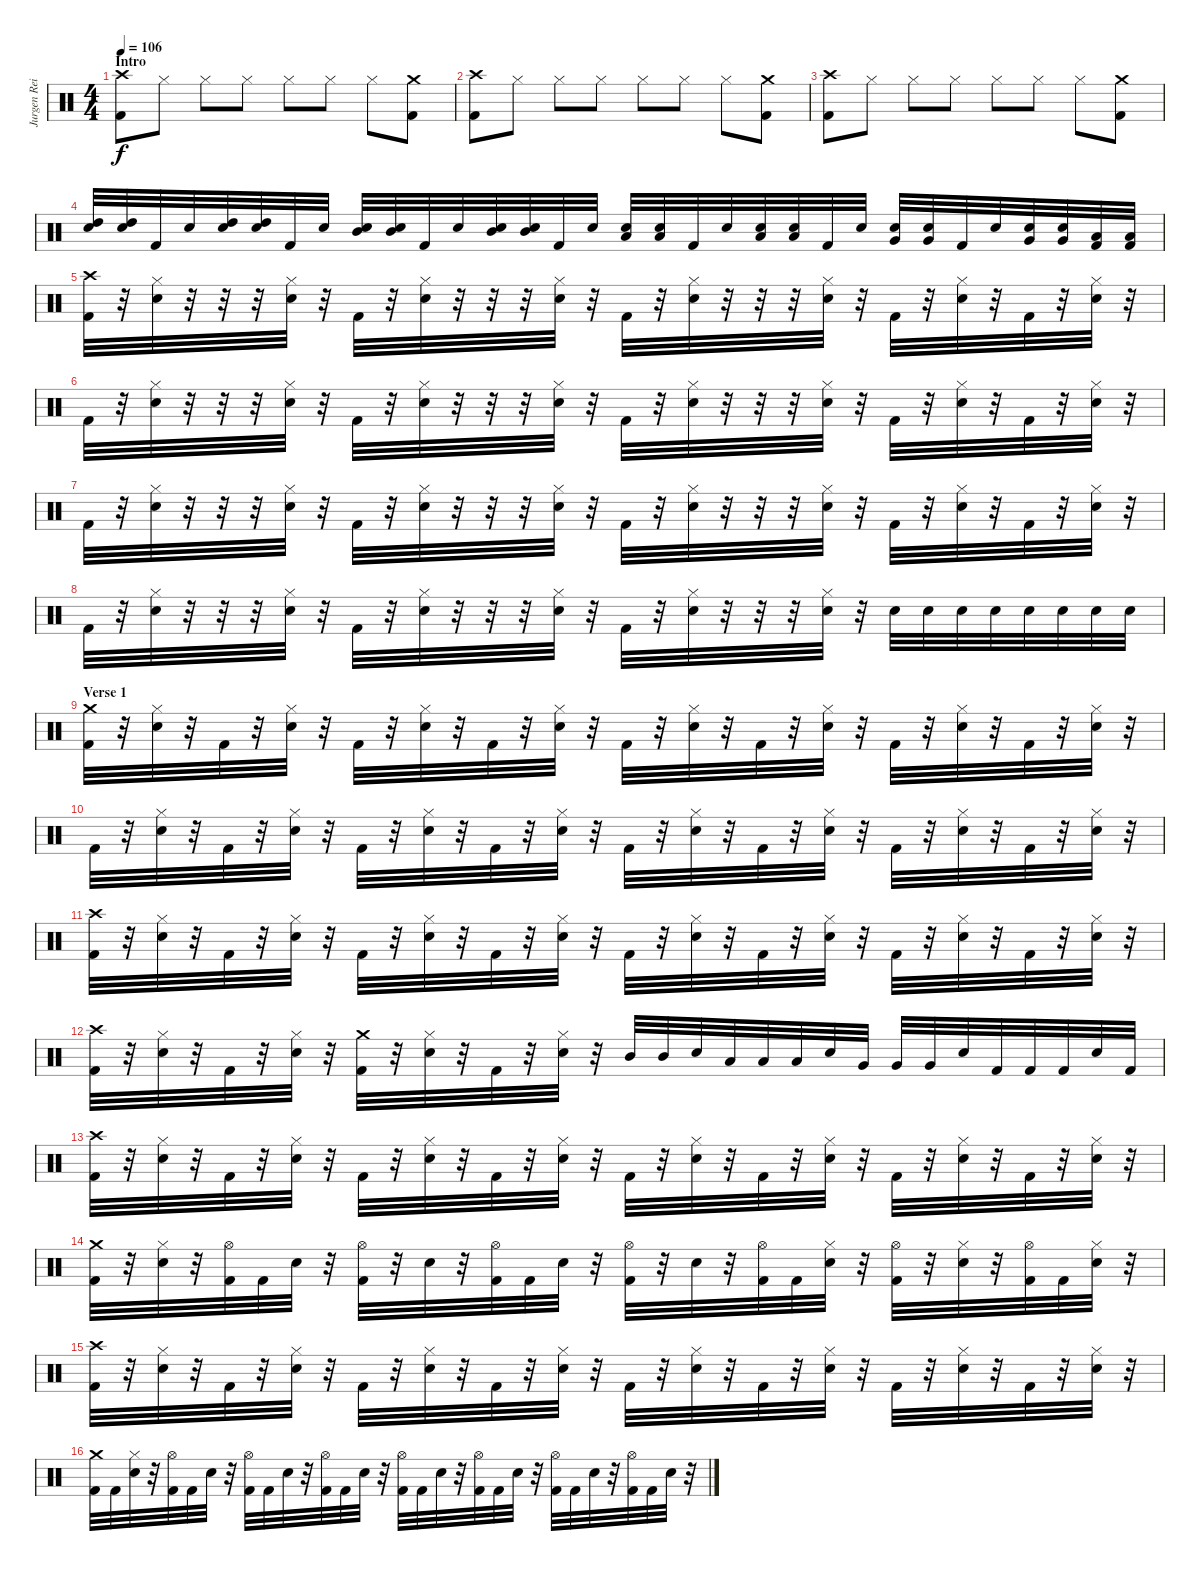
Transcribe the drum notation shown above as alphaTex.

\track ("Jurgen Reil" "Jurgen Rei") {instrument percussion}
\staff {score}
\articulation defaults
\ts (4 4)
\section ("" "Intro")
\tempo 106
\clef neutral
\ks c
("Crash high (hit)" "Kick (hit) 2").8{dy f} "Hi-Hat (closed)".8 "Hi-Hat (closed)".8 "Hi-Hat (closed)".8 "Hi-Hat (closed)".8 "Hi-Hat (closed)".8 "Hi-Hat (closed)".8 ("Crash medium (hit)" "Kick (hit) 2").8 |
("Crash high (hit)" "Kick (hit) 2").8 "Hi-Hat (closed)".8 "Hi-Hat (closed)".8 "Hi-Hat (closed)".8 "Hi-Hat (closed)".8 "Hi-Hat (closed)".8 "Hi-Hat (closed)".8 ("Crash medium (hit)" "Kick (hit) 2").8 |
("Crash high (hit)" "Kick (hit) 2").8 "Hi-Hat (closed)".8 "Hi-Hat (closed)".8 "Hi-Hat (closed)".8 "Hi-Hat (closed)".8 "Hi-Hat (closed)".8 "Hi-Hat (closed)".8 ("Crash medium (hit)" "Kick (hit) 2").8 |
("High Tom (hit)" "Snare (hit) 2").32 ("High Tom (hit)" "Snare (hit) 2").32 "Kick (hit) 2".32 "Snare (hit) 2".32 ("High Tom (hit)" "Snare (hit) 2").32 ("High Tom (hit)" "Snare (hit) 2").32 "Kick (hit) 2".32 "Snare (hit) 2".32 ("Mid Tom (hit)" "Snare (hit) 2").32 ("Mid Tom (hit)" "Snare (hit) 2").32 "Kick (hit) 2".32 "Snare (hit) 2".32 ("Mid Tom (hit)" "Snare (hit) 2").32 ("Mid Tom (hit)" "Snare (hit) 2").32 "Kick (hit) 2".32 "Snare (hit) 2".32 ("Low Tom (hit)" "Snare (hit) 2").32 ("Low Tom (hit)" "Snare (hit) 2").32 "Kick (hit) 2".32 "Snare (hit) 2".32 ("Low Tom (hit)" "Snare (hit) 2").32 ("Low Tom (hit)" "Snare (hit) 2").32 "Kick (hit) 2".32 "Snare (hit) 2".32 ("Very Low Tom (hit)" "Snare (hit) 2").32 ("Very Low Tom (hit)" "Snare (hit) 2").32 "Kick (hit) 2".32 "Snare (hit) 2".32 ("Very Low Tom (hit)" "Snare (hit) 2").32 ("Very Low Tom (hit)" "Snare (hit) 2").32 ("Low Floor Tom (hit)" "Kick (hit) 2").32 ("Low Floor Tom (hit)" "Kick (hit) 2").32 |
("Crash high (hit)" "Kick (hit) 2").32 r.32 ("Hi-Hat (closed)" "Snare (hit) 2").32 r.32 r.32 r.32 ("Hi-Hat (closed)" "Snare (hit) 2").32 r.32 "Kick (hit) 2".32 r.32 ("Hi-Hat (closed)" "Snare (hit) 2").32 r.32 r.32 r.32 ("Hi-Hat (closed)" "Snare (hit) 2").32 r.32 "Kick (hit) 2".32 r.32 ("Hi-Hat (closed)" "Snare (hit) 2").32 r.32 r.32 r.32 ("Hi-Hat (closed)" "Snare (hit) 2").32 r.32 "Kick (hit) 2".32 r.32 ("Hi-Hat (closed)" "Snare (hit) 2").32 r.32 "Kick (hit) 2".32 r.32 ("Hi-Hat (closed)" "Snare (hit) 2").32 r.32 |
"Kick (hit) 2".32 r.32 ("Hi-Hat (closed)" "Snare (hit) 2").32 r.32 r.32 r.32 ("Hi-Hat (closed)" "Snare (hit) 2").32 r.32 "Kick (hit) 2".32 r.32 ("Hi-Hat (closed)" "Snare (hit) 2").32 r.32 r.32 r.32 ("Hi-Hat (closed)" "Snare (hit) 2").32 r.32 "Kick (hit) 2".32 r.32 ("Hi-Hat (closed)" "Snare (hit) 2").32 r.32 r.32 r.32 ("Hi-Hat (closed)" "Snare (hit) 2").32 r.32 "Kick (hit) 2".32 r.32 ("Hi-Hat (closed)" "Snare (hit) 2").32 r.32 "Kick (hit) 2".32 r.32 ("Hi-Hat (closed)" "Snare (hit) 2").32 r.32 |
"Kick (hit) 2".32 r.32 ("Hi-Hat (closed)" "Snare (hit) 2").32 r.32 r.32 r.32 ("Hi-Hat (closed)" "Snare (hit) 2").32 r.32 "Kick (hit) 2".32 r.32 ("Hi-Hat (closed)" "Snare (hit) 2").32 r.32 r.32 r.32 ("Hi-Hat (closed)" "Snare (hit) 2").32 r.32 "Kick (hit) 2".32 r.32 ("Hi-Hat (closed)" "Snare (hit) 2").32 r.32 r.32 r.32 ("Hi-Hat (closed)" "Snare (hit) 2").32 r.32 "Kick (hit) 2".32 r.32 ("Hi-Hat (closed)" "Snare (hit) 2").32 r.32 "Kick (hit) 2".32 r.32 ("Hi-Hat (closed)" "Snare (hit) 2").32 r.32 |
"Kick (hit) 2".32 r.32 ("Hi-Hat (closed)" "Snare (hit) 2").32 r.32 r.32 r.32 ("Hi-Hat (closed)" "Snare (hit) 2").32 r.32 "Kick (hit) 2".32 r.32 ("Hi-Hat (closed)" "Snare (hit) 2").32 r.32 r.32 r.32 ("Hi-Hat (closed)" "Snare (hit) 2").32 r.32 "Kick (hit) 2".32 r.32 ("Hi-Hat (closed)" "Snare (hit) 2").32 r.32 r.32 r.32 ("Hi-Hat (closed)" "Snare (hit) 2").32 r.32 "Snare (hit) 2".32 "Snare (hit) 2".32 "Snare (hit) 2".32 "Snare (hit) 2".32 "Snare (hit) 2".32 "Snare (hit) 2".32 "Snare (hit) 2".32 "Snare (hit) 2".32 |
\section ("" "Verse 1")
("Crash medium (hit)" "Kick (hit) 2").32 r.32 ("Hi-Hat (closed)" "Snare (hit) 2").32 r.32 "Kick (hit) 2".32 r.32 ("Hi-Hat (closed)" "Snare (hit) 2").32 r.32 "Kick (hit) 2".32 r.32 ("Hi-Hat (closed)" "Snare (hit) 2").32 r.32 "Kick (hit) 2".32 r.32 ("Hi-Hat (closed)" "Snare (hit) 2").32 r.32 "Kick (hit) 2".32 r.32 ("Hi-Hat (closed)" "Snare (hit) 2").32 r.32 "Kick (hit) 2".32 r.32 ("Hi-Hat (closed)" "Snare (hit) 2").32 r.32 "Kick (hit) 2".32 r.32 ("Hi-Hat (closed)" "Snare (hit) 2").32 r.32 "Kick (hit) 2".32 r.32 ("Hi-Hat (closed)" "Snare (hit) 2").32 r.32 |
"Kick (hit) 2".32 r.32 ("Hi-Hat (closed)" "Snare (hit) 2").32 r.32 "Kick (hit) 2".32 r.32 ("Hi-Hat (closed)" "Snare (hit) 2").32 r.32 "Kick (hit) 2".32 r.32 ("Hi-Hat (closed)" "Snare (hit) 2").32 r.32 "Kick (hit) 2".32 r.32 ("Hi-Hat (closed)" "Snare (hit) 2").32 r.32 "Kick (hit) 2".32 r.32 ("Hi-Hat (closed)" "Snare (hit) 2").32 r.32 "Kick (hit) 2".32 r.32 ("Hi-Hat (closed)" "Snare (hit) 2").32 r.32 "Kick (hit) 2".32 r.32 ("Hi-Hat (closed)" "Snare (hit) 2").32 r.32 "Kick (hit) 2".32 r.32 ("Hi-Hat (closed)" "Snare (hit) 2").32 r.32 |
("Crash high (hit)" "Kick (hit) 2").32 r.32 ("Hi-Hat (closed)" "Snare (hit) 2").32 r.32 "Kick (hit) 2".32 r.32 ("Hi-Hat (closed)" "Snare (hit) 2").32 r.32 "Kick (hit) 2".32 r.32 ("Hi-Hat (closed)" "Snare (hit) 2").32 r.32 "Kick (hit) 2".32 r.32 ("Hi-Hat (closed)" "Snare (hit) 2").32 r.32 "Kick (hit) 2".32 r.32 ("Hi-Hat (closed)" "Snare (hit) 2").32 r.32 "Kick (hit) 2".32 r.32 ("Hi-Hat (closed)" "Snare (hit) 2").32 r.32 "Kick (hit) 2".32 r.32 ("Hi-Hat (closed)" "Snare (hit) 2").32 r.32 "Kick (hit) 2".32 r.32 ("Hi-Hat (closed)" "Snare (hit) 2").32 r.32 |
("Crash high (hit)" "Kick (hit) 2").32 r.32 ("Hi-Hat (closed)" "Snare (hit) 2").32 r.32 "Kick (hit) 2".32 r.32 ("Hi-Hat (closed)" "Snare (hit) 2").32 r.32 ("Crash medium (hit)" "Kick (hit) 2").32 r.32 ("Hi-Hat (closed)" "Snare (hit) 2").32 r.32 "Kick (hit) 2".32 r.32 ("Hi-Hat (closed)" "Snare (hit) 2").32 r.32 "Mid Tom (hit)".32 "Mid Tom (hit)".32 "Snare (hit) 2".32 "Low Tom (hit)".32 "Low Tom (hit)".32 "Low Tom (hit)".32 "Snare (hit) 2".32 "Very Low Tom (hit)".32 "Very Low Tom (hit)".32 "Very Low Tom (hit)".32 "Snare (hit) 2".32 "Kick (hit) 2".32 "Kick (hit) 2".32 "Kick (hit) 2".32 "Snare (hit) 2".32 "Kick (hit) 2".32 |
("Crash high (hit)" "Kick (hit) 2").32 r.32 ("Hi-Hat (closed)" "Snare (hit) 2").32 r.32 "Kick (hit) 2".32 r.32 ("Hi-Hat (closed)" "Snare (hit) 2").32 r.32 "Kick (hit) 2".32 r.32 ("Hi-Hat (closed)" "Snare (hit) 2").32 r.32 "Kick (hit) 2".32 r.32 ("Hi-Hat (closed)" "Snare (hit) 2").32 r.32 "Kick (hit) 2".32 r.32 ("Hi-Hat (closed)" "Snare (hit) 2").32 r.32 "Kick (hit) 2".32 r.32 ("Hi-Hat (closed)" "Snare (hit) 2").32 r.32 "Kick (hit) 2".32 r.32 ("Hi-Hat (closed)" "Snare (hit) 2").32 r.32 "Kick (hit) 2".32 r.32 ("Hi-Hat (closed)" "Snare (hit) 2").32 r.32 |
("Crash medium (hit)" "Kick (hit) 2").32 r.32 ("Hi-Hat (closed)" "Snare (hit) 2").32 r.32 ("Hi-Hat (open)" "Kick (hit) 2").32 "Kick (hit) 2".32 "Snare (hit) 2".32 r.32 ("Hi-Hat (open)" "Kick (hit) 2").32 r.32 "Snare (hit) 2".32 r.32 ("Hi-Hat (open)" "Kick (hit) 2").32 "Kick (hit) 2".32 "Snare (hit) 2".32 r.32 ("Hi-Hat (open)" "Kick (hit) 2").32 r.32 "Snare (hit) 2".32 r.32 ("Hi-Hat (open)" "Kick (hit) 2").32 "Kick (hit) 2".32 ("Hi-Hat (closed)" "Snare (hit) 2").32 r.32 ("Hi-Hat (open)" "Kick (hit) 2").32 r.32 ("Hi-Hat (closed)" "Snare (hit) 2").32 r.32 ("Hi-Hat (open)" "Kick (hit) 2").32 "Kick (hit) 2".32 ("Hi-Hat (closed)" "Snare (hit) 2").32 r.32 |
("Crash high (hit)" "Kick (hit) 2").32 r.32 ("Hi-Hat (closed)" "Snare (hit) 2").32 r.32 "Kick (hit) 2".32 r.32 ("Hi-Hat (closed)" "Snare (hit) 2").32 r.32 "Kick (hit) 2".32 r.32 ("Hi-Hat (closed)" "Snare (hit) 2").32 r.32 "Kick (hit) 2".32 r.32 ("Hi-Hat (closed)" "Snare (hit) 2").32 r.32 "Kick (hit) 2".32 r.32 ("Hi-Hat (closed)" "Snare (hit) 2").32 r.32 "Kick (hit) 2".32 r.32 ("Hi-Hat (closed)" "Snare (hit) 2").32 r.32 "Kick (hit) 2".32 r.32 ("Hi-Hat (closed)" "Snare (hit) 2").32 r.32 "Kick (hit) 2".32 r.32 ("Hi-Hat (closed)" "Snare (hit) 2").32 r.32 |
("Crash medium (hit)" "Kick (hit) 2").32 "Kick (hit) 2".32 ("Hi-Hat (closed)" "Snare (hit) 2").32 r.32 ("Hi-Hat (open)" "Kick (hit) 2").32 "Kick (hit) 2".32 "Snare (hit) 2".32 r.32 ("Hi-Hat (open)" "Kick (hit) 2").32 "Kick (hit) 2".32 "Snare (hit) 2".32 r.32 ("Hi-Hat (open)" "Kick (hit) 2").32 "Kick (hit) 2".32 "Snare (hit) 2".32 r.32 ("Hi-Hat (open)" "Kick (hit) 2").32 "Kick (hit) 2".32 "Snare (hit) 2".32 r.32 ("Hi-Hat (open)" "Kick (hit) 2").32 "Kick (hit) 2".32 "Snare (hit) 2".32 r.32 ("Hi-Hat (open)" "Kick (hit) 2").32 "Kick (hit) 2".32 "Snare (hit) 2".32 r.32 ("Hi-Hat (open)" "Kick (hit) 2").32 "Kick (hit) 2".32 "Snare (hit) 2".32 r.32
